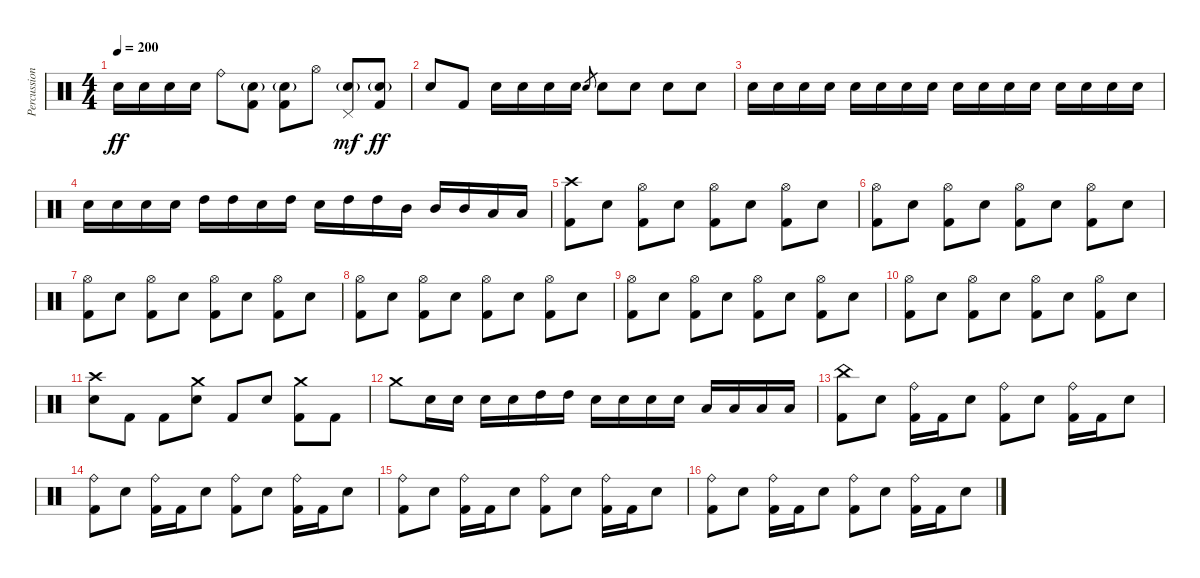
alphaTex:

\track ("Percussion" "Percussion") {instrument percussion}
\staff {score}
\articulation defaults
\ts (4 4)
\tempo 200
\clef neutral
\ks c "Electric Snare (hit)".16{dy ff} "Electric Snare (hit)".16 "Electric Snare (hit)".16 "Electric Snare (hit)".16 "Ride (bell)".8
("Electric Snare (hit)"{g} "Kick (hit) 2").8 ("Electric Snare (hit)"{g} "Kick (hit) 2").8 "Hi-Hat (open)".8 ("Pedal Hi-Hat (hit)" "Electric Snare (hit)"{g}).8{dy mf} ("Electric Snare (hit)"{g} "Kick (hit) 2").8{dy ff} |
"Electric Snare (hit)".8 "Kick (hit) 2".8 "Electric Snare (hit)".16 "Electric Snare (hit)".16 "Electric Snare (hit)".16 "Electric Snare (hit)".16 "Electric Snare (hit)".8{gr} "Electric Snare (hit)".8 "Electric Snare (hit)".8 "Electric Snare (hit)".8 "Electric Snare (hit)".8 |
"Electric Snare (hit)".16 "Electric Snare (hit)".16 "Electric Snare (hit)".16 "Electric Snare (hit)".16 "Electric Snare (hit)".16 "Electric Snare (hit)".16 "Electric Snare (hit)".16 "Electric Snare (hit)".16 "Electric Snare (hit)".16 "Electric Snare (hit)".16 "Electric Snare (hit)".16 "Electric Snare (hit)".16 "Electric Snare (hit)".16 "Electric Snare (hit)".16 "Electric Snare (hit)".16 "Electric Snare (hit)".16 |
"Electric Snare (hit)".16 "Electric Snare (hit)".16 "Electric Snare (hit)".16 "Electric Snare (hit)".16 "High Tom (hit)".16 "High Tom (hit)".16 "Electric Snare (hit)".16 "High Tom (hit)".16 "Electric Snare (hit)".16 "High Tom (hit)".16 "High Tom (hit)".16 "Mid Tom (hit)".16 "Mid Tom (hit)".16 "Mid Tom (hit)".16 "Low Tom (hit)".16 "Low Tom (hit)".16 |
("Crash high (hit)" "Kick (hit) 2").8 "Electric Snare (hit)".8 ("Hi-Hat (open)" "Kick (hit) 2").8 "Electric Snare (hit)".8 ("Hi-Hat (open)" "Kick (hit) 2").8 "Electric Snare (hit)".8 ("Hi-Hat (open)" "Kick (hit) 2").8 "Electric Snare (hit)".8 |
("Hi-Hat (open)" "Kick (hit) 2").8 "Electric Snare (hit)".8 ("Hi-Hat (open)" "Kick (hit) 2").8 "Electric Snare (hit)".8 ("Hi-Hat (open)" "Kick (hit) 2").8 "Electric Snare (hit)".8 ("Hi-Hat (open)" "Kick (hit) 2").8 "Electric Snare (hit)".8 |
("Hi-Hat (open)" "Kick (hit) 2").8 "Electric Snare (hit)".8 ("Hi-Hat (open)" "Kick (hit) 2").8 "Electric Snare (hit)".8 ("Hi-Hat (open)" "Kick (hit) 2").8 "Electric Snare (hit)".8 ("Hi-Hat (open)" "Kick (hit) 2").8 "Electric Snare (hit)".8 |
("Hi-Hat (open)" "Kick (hit) 2").8 "Electric Snare (hit)".8 ("Hi-Hat (open)" "Kick (hit) 2").8 "Electric Snare (hit)".8 ("Hi-Hat (open)" "Kick (hit) 2").8 "Electric Snare (hit)".8 ("Hi-Hat (open)" "Kick (hit) 2").8 "Electric Snare (hit)".8 |
("Hi-Hat (open)" "Kick (hit) 2").8 "Electric Snare (hit)".8 ("Hi-Hat (open)" "Kick (hit) 2").8 "Electric Snare (hit)".8 ("Hi-Hat (open)" "Kick (hit) 2").8 "Electric Snare (hit)".8 ("Hi-Hat (open)" "Kick (hit) 2").8 "Electric Snare (hit)".8 |
("Hi-Hat (open)" "Kick (hit) 2").8 "Electric Snare (hit)".8 ("Hi-Hat (open)" "Kick (hit) 2").8 "Electric Snare (hit)".8 ("Hi-Hat (open)" "Kick (hit) 2").8 "Electric Snare (hit)".8 ("Hi-Hat (open)" "Kick (hit) 2").8 "Electric Snare (hit)".8 |
("Crash high (hit)" "Electric Snare (hit)").8 "Kick (hit) 2".8 "Kick (hit) 2".8 ("Crash medium (hit)" "Electric Snare (hit)").8 "Kick (hit) 2".8 "Electric Snare (hit)".8 ("Crash medium (hit)" "Kick (hit) 2").8 "Kick (hit) 2".8 |
"Crash medium (hit)".8 "Electric Snare (hit)".16 "Electric Snare (hit)".16 "Electric Snare (hit)".16 "Electric Snare (hit)".16 "High Tom (hit)".16 "High Tom (hit)".16 "Electric Snare (hit)".16 "Electric Snare (hit)".16 "Electric Snare (hit)".16 "Electric Snare (hit)".16 "Low Tom (hit)".16 "Low Tom (hit)".16 "Low Tom (hit)".16 "Low Tom (hit)".16 |
("China (hit)" "Kick (hit) 2").8 "Electric Snare (hit)".8 ("Ride (bell)" "Kick (hit) 2").16 "Kick (hit) 2".16 "Electric Snare (hit)".8 ("Ride (bell)" "Kick (hit) 2").8 "Electric Snare (hit)".8 ("Ride (bell)" "Kick (hit) 2").16 "Kick (hit) 2".16 "Electric Snare (hit)".8 |
("Ride (bell)" "Kick (hit) 2").8 "Electric Snare (hit)".8 ("Ride (bell)" "Kick (hit) 2").16 "Kick (hit) 2".16 "Electric Snare (hit)".8 ("Ride (bell)" "Kick (hit) 2").8 "Electric Snare (hit)".8 ("Ride (bell)" "Kick (hit) 2").16 "Kick (hit) 2".16 "Electric Snare (hit)".8 |
("Ride (bell)" "Kick (hit) 2").8 "Electric Snare (hit)".8 ("Ride (bell)" "Kick (hit) 2").16 "Kick (hit) 2".16 "Electric Snare (hit)".8 ("Ride (bell)" "Kick (hit) 2").8 "Electric Snare (hit)".8 ("Ride (bell)" "Kick (hit) 2").16 "Kick (hit) 2".16 "Electric Snare (hit)".8 |
("Ride (bell)" "Kick (hit) 2").8 "Electric Snare (hit)".8 ("Ride (bell)" "Kick (hit) 2").16 "Kick (hit) 2".16 "Electric Snare (hit)".8 ("Ride (bell)" "Kick (hit) 2").8 "Electric Snare (hit)".8 ("Ride (bell)" "Kick (hit) 2").16 "Kick (hit) 2".16 "Electric Snare (hit)".8
